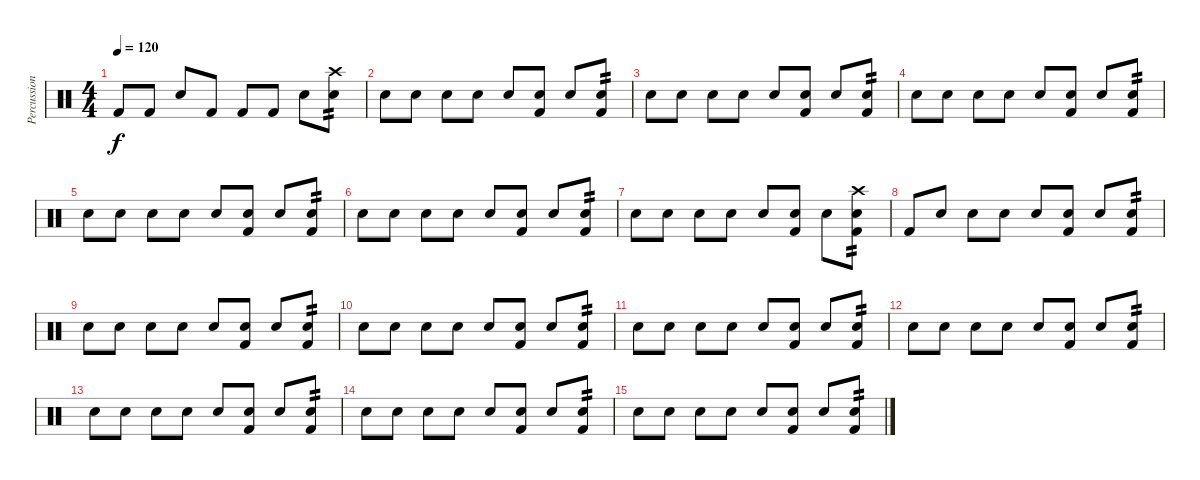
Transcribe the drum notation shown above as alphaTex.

\track ("Percussion" "Percussion") {instrument percussion}
\staff {score}
\articulation defaults
\ts (4 4)
\tempo 120
\clef neutral
\ks c "Kick (hit) 2".8{dy f} "Kick (hit) 2".8 "Snare (hit) 2".8 "Kick (hit) 2".8 "Kick (hit) 2".8 "Kick (hit) 2".8 "Snare (hit) 2".8
("Crash high (hit)" "Snare (hit) 2").8{tp 2} |
"Snare (hit) 2".8 "Snare (hit) 2".8 "Snare (hit) 2".8 "Snare (hit) 2".8 "Snare (hit) 2".8 ("Kick (hit) 2" "Snare (hit) 2").8 "Snare (hit) 2".8 ("Kick (hit) 2" "Snare (hit) 2").8{tp 2} |
"Snare (hit) 2".8 "Snare (hit) 2".8 "Snare (hit) 2".8 "Snare (hit) 2".8 "Snare (hit) 2".8 ("Kick (hit) 2" "Snare (hit) 2").8 "Snare (hit) 2".8 ("Kick (hit) 2" "Snare (hit) 2").8{tp 2} |
"Snare (hit) 2".8 "Snare (hit) 2".8 "Snare (hit) 2".8 "Snare (hit) 2".8 "Snare (hit) 2".8 ("Kick (hit) 2" "Snare (hit) 2").8 "Snare (hit) 2".8 ("Kick (hit) 2" "Snare (hit) 2").8{tp 2} |
"Snare (hit) 2".8 "Snare (hit) 2".8 "Snare (hit) 2".8 "Snare (hit) 2".8 "Snare (hit) 2".8 ("Kick (hit) 2" "Snare (hit) 2").8 "Snare (hit) 2".8 ("Kick (hit) 2" "Snare (hit) 2").8{tp 2} |
"Snare (hit) 2".8 "Snare (hit) 2".8 "Snare (hit) 2".8 "Snare (hit) 2".8 "Snare (hit) 2".8 ("Kick (hit) 2" "Snare (hit) 2").8 "Snare (hit) 2".8 ("Kick (hit) 2" "Snare (hit) 2").8{tp 2} |
"Snare (hit) 2".8 "Snare (hit) 2".8 "Snare (hit) 2".8 "Snare (hit) 2".8 "Snare (hit) 2".8 ("Kick (hit) 2" "Snare (hit) 2").8 "Snare (hit) 2".8 ("Kick (hit) 2" "Snare (hit) 2" "Crash high (hit)").8{tp 2} |
"Kick (hit) 2".8 "Snare (hit) 2".8 "Snare (hit) 2".8 "Snare (hit) 2".8 "Snare (hit) 2".8 ("Kick (hit) 2" "Snare (hit) 2").8 "Snare (hit) 2".8 ("Kick (hit) 2" "Snare (hit) 2").8{tp 2} |
"Snare (hit) 2".8 "Snare (hit) 2".8 "Snare (hit) 2".8 "Snare (hit) 2".8 "Snare (hit) 2".8 ("Kick (hit) 2" "Snare (hit) 2").8 "Snare (hit) 2".8 ("Kick (hit) 2" "Snare (hit) 2").8{tp 2} |
"Snare (hit) 2".8 "Snare (hit) 2".8 "Snare (hit) 2".8 "Snare (hit) 2".8 "Snare (hit) 2".8 ("Kick (hit) 2" "Snare (hit) 2").8 "Snare (hit) 2".8 ("Kick (hit) 2" "Snare (hit) 2").8{tp 2} |
"Snare (hit) 2".8 "Snare (hit) 2".8 "Snare (hit) 2".8 "Snare (hit) 2".8 "Snare (hit) 2".8 ("Kick (hit) 2" "Snare (hit) 2").8 "Snare (hit) 2".8 ("Kick (hit) 2" "Snare (hit) 2").8{tp 2} |
"Snare (hit) 2".8 "Snare (hit) 2".8 "Snare (hit) 2".8 "Snare (hit) 2".8 "Snare (hit) 2".8 ("Kick (hit) 2" "Snare (hit) 2").8 "Snare (hit) 2".8 ("Kick (hit) 2" "Snare (hit) 2").8{tp 2} |
"Snare (hit) 2".8 "Snare (hit) 2".8 "Snare (hit) 2".8 "Snare (hit) 2".8 "Snare (hit) 2".8 ("Kick (hit) 2" "Snare (hit) 2").8 "Snare (hit) 2".8 ("Kick (hit) 2" "Snare (hit) 2").8{tp 2} |
"Snare (hit) 2".8 "Snare (hit) 2".8 "Snare (hit) 2".8 "Snare (hit) 2".8 "Snare (hit) 2".8 ("Kick (hit) 2" "Snare (hit) 2").8 "Snare (hit) 2".8 ("Kick (hit) 2" "Snare (hit) 2").8{tp 2} |
"Snare (hit) 2".8 "Snare (hit) 2".8 "Snare (hit) 2".8 "Snare (hit) 2".8 "Snare (hit) 2".8 ("Kick (hit) 2" "Snare (hit) 2").8 "Snare (hit) 2".8 ("Kick (hit) 2" "Snare (hit) 2").8{tp 2}
